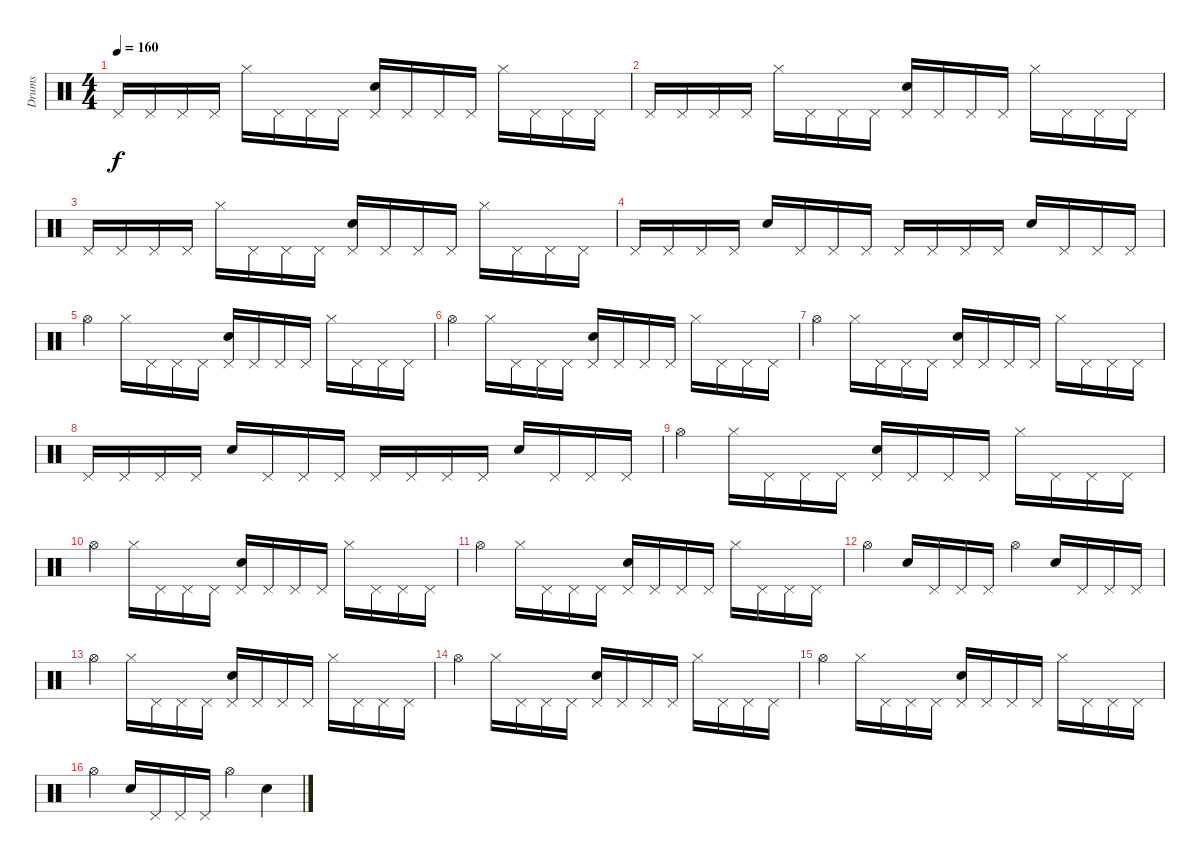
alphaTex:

\track ("Drums" "Drums") {instrument percussion}
\staff {score}
\articulation defaults
\ts (4 4)
\tempo 160
\clef neutral
\ks c "Pedal Hi-Hat (hit)".16{dy f} "Pedal Hi-Hat (hit)".16 "Pedal Hi-Hat (hit)".16 "Pedal Hi-Hat (hit)".16 "Hi-Hat (closed)".16 "Pedal Hi-Hat (hit)".16 "Pedal Hi-Hat (hit)".16 "Pedal Hi-Hat (hit)".16
("Pedal Hi-Hat (hit)" "Electric Snare (hit)").16 "Pedal Hi-Hat (hit)".16 "Pedal Hi-Hat (hit)".16 "Pedal Hi-Hat (hit)".16 "Hi-Hat (closed)".16 "Pedal Hi-Hat (hit)".16 "Pedal Hi-Hat (hit)".16 "Pedal Hi-Hat (hit)".16 |
"Pedal Hi-Hat (hit)".16 "Pedal Hi-Hat (hit)".16 "Pedal Hi-Hat (hit)".16 "Pedal Hi-Hat (hit)".16 "Hi-Hat (closed)".16 "Pedal Hi-Hat (hit)".16 "Pedal Hi-Hat (hit)".16 "Pedal Hi-Hat (hit)".16 ("Pedal Hi-Hat (hit)" "Electric Snare (hit)").16 "Pedal Hi-Hat (hit)".16 "Pedal Hi-Hat (hit)".16 "Pedal Hi-Hat (hit)".16 "Hi-Hat (closed)".16 "Pedal Hi-Hat (hit)".16 "Pedal Hi-Hat (hit)".16 "Pedal Hi-Hat (hit)".16 |
"Pedal Hi-Hat (hit)".16 "Pedal Hi-Hat (hit)".16 "Pedal Hi-Hat (hit)".16 "Pedal Hi-Hat (hit)".16 "Hi-Hat (closed)".16 "Pedal Hi-Hat (hit)".16 "Pedal Hi-Hat (hit)".16 "Pedal Hi-Hat (hit)".16 ("Pedal Hi-Hat (hit)" "Electric Snare (hit)").16 "Pedal Hi-Hat (hit)".16 "Pedal Hi-Hat (hit)".16 "Pedal Hi-Hat (hit)".16 "Hi-Hat (closed)".16 "Pedal Hi-Hat (hit)".16 "Pedal Hi-Hat (hit)".16 "Pedal Hi-Hat (hit)".16 |
"Pedal Hi-Hat (hit)".16 "Pedal Hi-Hat (hit)".16 "Pedal Hi-Hat (hit)".16 "Pedal Hi-Hat (hit)".16 "Electric Snare (hit)".16 "Pedal Hi-Hat (hit)".16 "Pedal Hi-Hat (hit)".16 "Pedal Hi-Hat (hit)".16 "Pedal Hi-Hat (hit)".16 "Pedal Hi-Hat (hit)".16 "Pedal Hi-Hat (hit)".16 "Pedal Hi-Hat (hit)".16 "Electric Snare (hit)".16 "Pedal Hi-Hat (hit)".16 "Pedal Hi-Hat (hit)".16 "Pedal Hi-Hat (hit)".16 |
"Hi-Hat (open)".4 "Hi-Hat (closed)".16 "Pedal Hi-Hat (hit)".16 "Pedal Hi-Hat (hit)".16 "Pedal Hi-Hat (hit)".16 ("Pedal Hi-Hat (hit)" "Electric Snare (hit)").16 "Pedal Hi-Hat (hit)".16 "Pedal Hi-Hat (hit)".16 "Pedal Hi-Hat (hit)".16 "Hi-Hat (closed)".16 "Pedal Hi-Hat (hit)".16 "Pedal Hi-Hat (hit)".16 "Pedal Hi-Hat (hit)".16 |
"Hi-Hat (open)".4 "Hi-Hat (closed)".16 "Pedal Hi-Hat (hit)".16 "Pedal Hi-Hat (hit)".16 "Pedal Hi-Hat (hit)".16 ("Pedal Hi-Hat (hit)" "Electric Snare (hit)").16 "Pedal Hi-Hat (hit)".16 "Pedal Hi-Hat (hit)".16 "Pedal Hi-Hat (hit)".16 "Hi-Hat (closed)".16 "Pedal Hi-Hat (hit)".16 "Pedal Hi-Hat (hit)".16 "Pedal Hi-Hat (hit)".16 |
"Hi-Hat (open)".4 "Hi-Hat (closed)".16 "Pedal Hi-Hat (hit)".16 "Pedal Hi-Hat (hit)".16 "Pedal Hi-Hat (hit)".16 ("Pedal Hi-Hat (hit)" "Electric Snare (hit)").16 "Pedal Hi-Hat (hit)".16 "Pedal Hi-Hat (hit)".16 "Pedal Hi-Hat (hit)".16 "Hi-Hat (closed)".16 "Pedal Hi-Hat (hit)".16 "Pedal Hi-Hat (hit)".16 "Pedal Hi-Hat (hit)".16 |
"Pedal Hi-Hat (hit)".16 "Pedal Hi-Hat (hit)".16 "Pedal Hi-Hat (hit)".16 "Pedal Hi-Hat (hit)".16 "Electric Snare (hit)".16 "Pedal Hi-Hat (hit)".16 "Pedal Hi-Hat (hit)".16 "Pedal Hi-Hat (hit)".16 "Pedal Hi-Hat (hit)".16 "Pedal Hi-Hat (hit)".16 "Pedal Hi-Hat (hit)".16 "Pedal Hi-Hat (hit)".16 "Electric Snare (hit)".16 "Pedal Hi-Hat (hit)".16 "Pedal Hi-Hat (hit)".16 "Pedal Hi-Hat (hit)".16 |
"Hi-Hat (open)".4 "Hi-Hat (closed)".16 "Pedal Hi-Hat (hit)".16 "Pedal Hi-Hat (hit)".16 "Pedal Hi-Hat (hit)".16 ("Pedal Hi-Hat (hit)" "Electric Snare (hit)").16 "Pedal Hi-Hat (hit)".16 "Pedal Hi-Hat (hit)".16 "Pedal Hi-Hat (hit)".16 "Hi-Hat (closed)".16 "Pedal Hi-Hat (hit)".16 "Pedal Hi-Hat (hit)".16 "Pedal Hi-Hat (hit)".16 |
"Hi-Hat (open)".4 "Hi-Hat (closed)".16 "Pedal Hi-Hat (hit)".16 "Pedal Hi-Hat (hit)".16 "Pedal Hi-Hat (hit)".16 ("Pedal Hi-Hat (hit)" "Electric Snare (hit)").16 "Pedal Hi-Hat (hit)".16 "Pedal Hi-Hat (hit)".16 "Pedal Hi-Hat (hit)".16 "Hi-Hat (closed)".16 "Pedal Hi-Hat (hit)".16 "Pedal Hi-Hat (hit)".16 "Pedal Hi-Hat (hit)".16 |
"Hi-Hat (open)".4 "Hi-Hat (closed)".16 "Pedal Hi-Hat (hit)".16 "Pedal Hi-Hat (hit)".16 "Pedal Hi-Hat (hit)".16 ("Pedal Hi-Hat (hit)" "Electric Snare (hit)").16 "Pedal Hi-Hat (hit)".16 "Pedal Hi-Hat (hit)".16 "Pedal Hi-Hat (hit)".16 "Hi-Hat (closed)".16 "Pedal Hi-Hat (hit)".16 "Pedal Hi-Hat (hit)".16 "Pedal Hi-Hat (hit)".16 |
"Hi-Hat (open)".4 "Electric Snare (hit)".16 "Pedal Hi-Hat (hit)".16 "Pedal Hi-Hat (hit)".16 "Pedal Hi-Hat (hit)".16 "Hi-Hat (open)".4 "Electric Snare (hit)".16 "Pedal Hi-Hat (hit)".16 "Pedal Hi-Hat (hit)".16 "Pedal Hi-Hat (hit)".16 |
"Hi-Hat (open)".4 "Hi-Hat (closed)".16 "Pedal Hi-Hat (hit)".16 "Pedal Hi-Hat (hit)".16 "Pedal Hi-Hat (hit)".16 ("Pedal Hi-Hat (hit)" "Electric Snare (hit)").16 "Pedal Hi-Hat (hit)".16 "Pedal Hi-Hat (hit)".16 "Pedal Hi-Hat (hit)".16 "Hi-Hat (closed)".16 "Pedal Hi-Hat (hit)".16 "Pedal Hi-Hat (hit)".16 "Pedal Hi-Hat (hit)".16 |
"Hi-Hat (open)".4 "Hi-Hat (closed)".16 "Pedal Hi-Hat (hit)".16 "Pedal Hi-Hat (hit)".16 "Pedal Hi-Hat (hit)".16 ("Pedal Hi-Hat (hit)" "Electric Snare (hit)").16 "Pedal Hi-Hat (hit)".16 "Pedal Hi-Hat (hit)".16 "Pedal Hi-Hat (hit)".16 "Hi-Hat (closed)".16 "Pedal Hi-Hat (hit)".16 "Pedal Hi-Hat (hit)".16 "Pedal Hi-Hat (hit)".16 |
"Hi-Hat (open)".4 "Hi-Hat (closed)".16 "Pedal Hi-Hat (hit)".16 "Pedal Hi-Hat (hit)".16 "Pedal Hi-Hat (hit)".16 ("Pedal Hi-Hat (hit)" "Electric Snare (hit)").16 "Pedal Hi-Hat (hit)".16 "Pedal Hi-Hat (hit)".16 "Pedal Hi-Hat (hit)".16 "Hi-Hat (closed)".16 "Pedal Hi-Hat (hit)".16 "Pedal Hi-Hat (hit)".16 "Pedal Hi-Hat (hit)".16 |
"Hi-Hat (open)".4 "Electric Snare (hit)".16 "Pedal Hi-Hat (hit)".16 "Pedal Hi-Hat (hit)".16 "Pedal Hi-Hat (hit)".16 "Hi-Hat (open)".4 "Electric Snare (hit)".4
